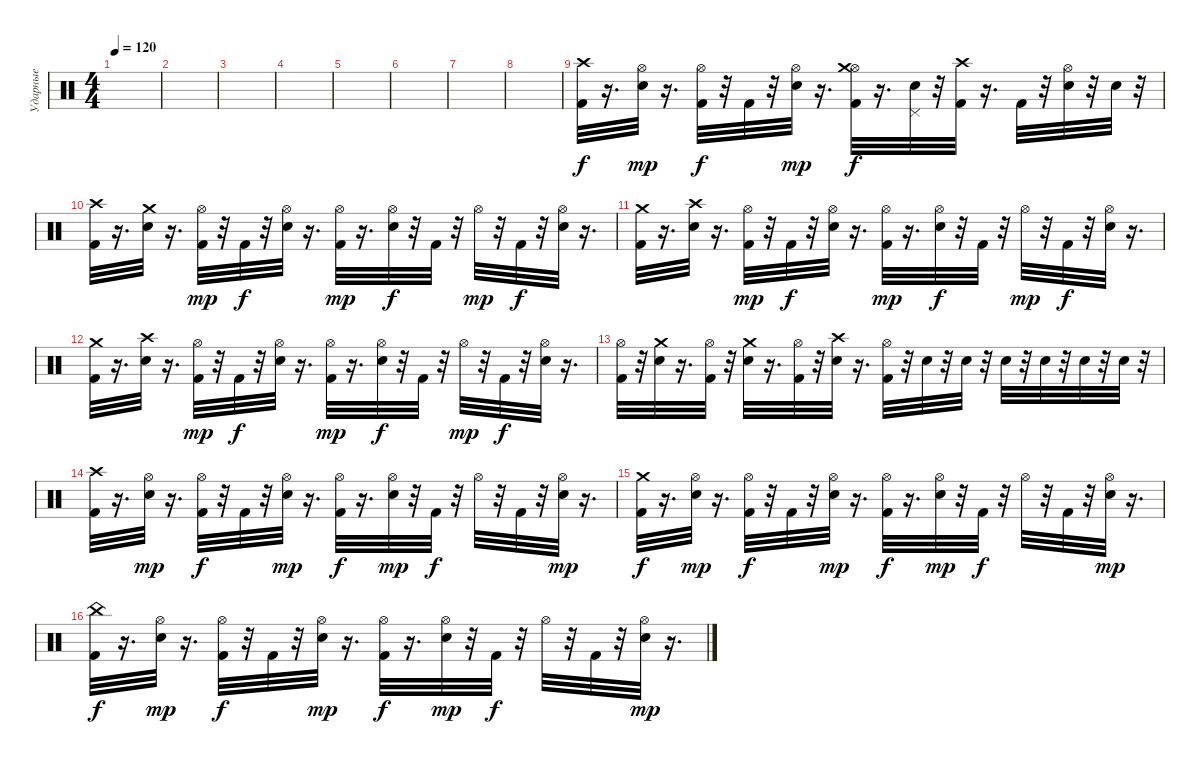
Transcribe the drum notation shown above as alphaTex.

\track ("Ударные" "Ударные") {instrument percussion}
\staff {score}
\articulation defaults
\ts (4 4)
\tempo 120
\clef neutral
\ks c
|
|
|
|
|
|
|
|
("Crash high (hit)" "Kick (hit) 2").32{dy f} r.16{d} ("Hi-Hat (open)" "Electric Snare (hit)").32{dy mp} r.16{d} ("Hi-Hat (open)" "Kick (hit) 2").32{dy f} r.32 "Kick (hit) 2".32 r.32 ("Hi-Hat (open)" "Electric Snare (hit)").32{dy mp} r.16{d} ("Hi-Hat (open)" "Crash medium (hit)" "Kick (hit) 2").32{dy f} r.16{d} ("Pedal Hi-Hat (hit)" "Electric Snare (hit)").32 r.32 ("Crash high (hit)" "Kick (hit) 2").32 r.16{d} "Kick (hit) 2".32 r.32 ("Hi-Hat (open)" "Electric Snare (hit)").32 r.32 "Electric Snare (hit)".32 r.32 |
("Crash high (hit)" "Kick (hit) 2").32 r.16{d} ("Crash medium (hit)" "Electric Snare (hit)").32 r.16{d} ("Hi-Hat (open)" "Kick (hit) 2").32{dy mp} r.32 "Kick (hit) 2".32{dy f} r.32 ("Hi-Hat (open)" "Electric Snare (hit)").32 r.16{d} ("Hi-Hat (open)" "Kick (hit) 2").32{dy mp} r.16{d} ("Hi-Hat (open)" "Electric Snare (hit)").32{dy f} r.32 "Kick (hit) 2".32 r.32 "Hi-Hat (open)".32{dy mp} r.32 "Kick (hit) 2".32{dy f} r.32 ("Hi-Hat (open)" "Electric Snare (hit)").32 r.16{d} |
("Crash medium (hit)" "Kick (hit) 2").32 r.16{d} ("Electric Snare (hit)" "Crash high (hit)").32 r.16{d} ("Hi-Hat (open)" "Kick (hit) 2").32{dy mp} r.32 "Kick (hit) 2".32{dy f} r.32 ("Hi-Hat (open)" "Electric Snare (hit)").32 r.16{d} ("Hi-Hat (open)" "Kick (hit) 2").32{dy mp} r.16{d} ("Hi-Hat (open)" "Electric Snare (hit)").32{dy f} r.32 "Kick (hit) 2".32 r.32 "Hi-Hat (open)".32{dy mp} r.32 "Kick (hit) 2".32{dy f} r.32 ("Hi-Hat (open)" "Electric Snare (hit)").32 r.16{d} |
("Kick (hit) 2" "Crash medium (hit)").32 r.16{d} ("Electric Snare (hit)" "Crash high (hit)").32 r.16{d} ("Hi-Hat (open)" "Kick (hit) 2").32{dy mp} r.32 "Kick (hit) 2".32{dy f} r.32 ("Electric Snare (hit)" "Hi-Hat (open)").32 r.16{d} ("Hi-Hat (open)" "Kick (hit) 2").32{dy mp} r.16{d} ("Electric Snare (hit)" "Hi-Hat (open)").32{dy f} r.32 "Kick (hit) 2".32 r.32 "Hi-Hat (open)".32{dy mp} r.32 "Kick (hit) 2".32{dy f} r.32 ("Electric Snare (hit)" "Hi-Hat (open)").32 r.16{d} |
("Hi-Hat (open)" "Kick (hit) 2").32 r.32 ("Crash medium (hit)" "Electric Snare (hit)").32 r.16{d} ("Hi-Hat (open)" "Kick (hit) 2").32 r.32 ("Crash medium (hit)" "Electric Snare (hit)").32 r.16{d} ("Hi-Hat (open)" "Kick (hit) 2").32 r.32 ("Crash high (hit)" "Electric Snare (hit)").32 r.16{d} ("Hi-Hat (open)" "Kick (hit) 2").32 r.32 "Electric Snare (hit)".32 r.32 "Electric Snare (hit)".32 r.32 "Electric Snare (hit)".32 r.32 "Electric Snare (hit)".32 r.32 "Electric Snare (hit)".32 r.32 "Electric Snare (hit)".32 r.32 |
("Crash high (hit)" "Kick (hit) 2").32 r.16{d} ("Hi-Hat (open)" "Electric Snare (hit)").32{dy mp} r.16{d} ("Hi-Hat (open)" "Kick (hit) 2").32{dy f} r.32 "Kick (hit) 2".32 r.32 ("Hi-Hat (open)" "Electric Snare (hit)").32{dy mp} r.16{d} ("Hi-Hat (open)" "Kick (hit) 2").32{dy f} r.16{d} ("Hi-Hat (open)" "Electric Snare (hit)").32{dy mp} r.32 "Kick (hit) 2".32{dy f} r.32 "Hi-Hat (open)".32 r.32 "Kick (hit) 2".32 r.32 ("Hi-Hat (open)" "Electric Snare (hit)").32{dy mp} r.16{d} |
("Crash medium (hit)" "Kick (hit) 2").32{dy f} r.16{d} ("Hi-Hat (open)" "Electric Snare (hit)").32{dy mp} r.16{d} ("Hi-Hat (open)" "Kick (hit) 2").32{dy f} r.32 "Kick (hit) 2".32 r.32 ("Hi-Hat (open)" "Electric Snare (hit)").32{dy mp} r.16{d} ("Hi-Hat (open)" "Kick (hit) 2").32{dy f} r.16{d} ("Hi-Hat (open)" "Electric Snare (hit)").32{dy mp} r.32 "Kick (hit) 2".32{dy f} r.32 "Hi-Hat (open)".32 r.32 "Kick (hit) 2".32 r.32 ("Hi-Hat (open)" "Electric Snare (hit)").32{dy mp} r.16{d} |
("China (hit)" "Kick (hit) 2").32{dy f} r.16{d} ("Hi-Hat (open)" "Electric Snare (hit)").32{dy mp} r.16{d} ("Hi-Hat (open)" "Kick (hit) 2").32{dy f} r.32 "Kick (hit) 2".32 r.32 ("Hi-Hat (open)" "Electric Snare (hit)").32{dy mp} r.16{d} ("Hi-Hat (open)" "Kick (hit) 2").32{dy f} r.16{d} ("Hi-Hat (open)" "Electric Snare (hit)").32{dy mp} r.32 "Kick (hit) 2".32{dy f} r.32 "Hi-Hat (open)".32 r.32 "Kick (hit) 2".32 r.32 ("Hi-Hat (open)" "Electric Snare (hit)").32{dy mp} r.16{d}
